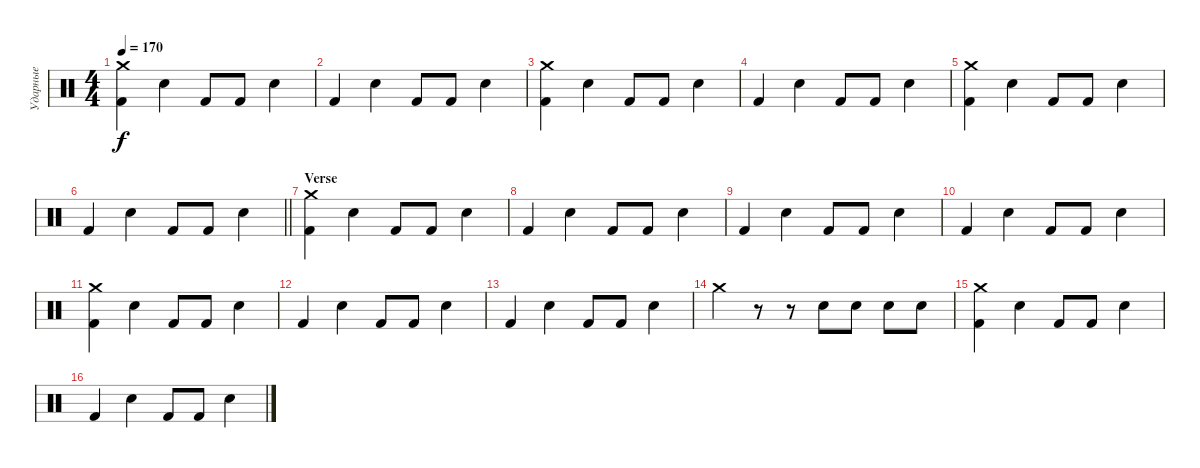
\track ("Ударные" "Ударные") {instrument percussion}
\staff {score}
\articulation defaults
\ts (4 4)
\tempo 170
\clef neutral
\ks c
("Kick (hit) 2" "Crash medium (hit)").4{dy f} "Snare (hit) 2".4 "Kick (hit) 2".8 "Kick (hit) 2".8 "Snare (hit) 2".4 |
"Kick (hit) 2".4 "Snare (hit) 2".4 "Kick (hit) 2".8 "Kick (hit) 2".8 "Snare (hit) 2".4 |
("Kick (hit) 2" "Crash medium (hit)").4 "Snare (hit) 2".4 "Kick (hit) 2".8 "Kick (hit) 2".8 "Snare (hit) 2".4 |
"Kick (hit) 2".4 "Snare (hit) 2".4 "Kick (hit) 2".8 "Kick (hit) 2".8 "Snare (hit) 2".4 |
("Kick (hit) 2" "Crash medium (hit)").4 "Snare (hit) 2".4 "Kick (hit) 2".8 "Kick (hit) 2".8 "Snare (hit) 2".4 |
\barLineRight lightlight "Kick (hit) 2".4 "Snare (hit) 2".4 "Kick (hit) 2".8 "Kick (hit) 2".8 "Snare (hit) 2".4
|
\section ("" "Verse")
("Kick (hit) 2" "Crash medium (hit)").4 "Snare (hit) 2".4 "Kick (hit) 2".8 "Kick (hit) 2".8 "Snare (hit) 2".4 |
"Kick (hit) 2".4 "Snare (hit) 2".4 "Kick (hit) 2".8 "Kick (hit) 2".8 "Snare (hit) 2".4 |
"Kick (hit) 2".4 "Snare (hit) 2".4 "Kick (hit) 2".8 "Kick (hit) 2".8 "Snare (hit) 2".4 |
"Kick (hit) 2".4 "Snare (hit) 2".4 "Kick (hit) 2".8 "Kick (hit) 2".8 "Snare (hit) 2".4 |
("Kick (hit) 2" "Crash medium (hit)").4 "Snare (hit) 2".4 "Kick (hit) 2".8 "Kick (hit) 2".8 "Snare (hit) 2".4 |
"Kick (hit) 2".4 "Snare (hit) 2".4 "Kick (hit) 2".8 "Kick (hit) 2".8 "Snare (hit) 2".4 |
"Kick (hit) 2".4 "Snare (hit) 2".4 "Kick (hit) 2".8 "Kick (hit) 2".8 "Snare (hit) 2".4 |
"Crash medium (hit)".4 r.8 r.8 "Electric Snare (hit)".8 "Electric Snare (hit)".8 "Electric Snare (hit)".8 "Electric Snare (hit)".8 |
("Kick (hit) 2" "Crash medium (hit)").4 "Snare (hit) 2".4 "Kick (hit) 2".8 "Kick (hit) 2".8 "Snare (hit) 2".4 |
"Kick (hit) 2".4 "Snare (hit) 2".4 "Kick (hit) 2".8 "Kick (hit) 2".8 "Snare (hit) 2".4
